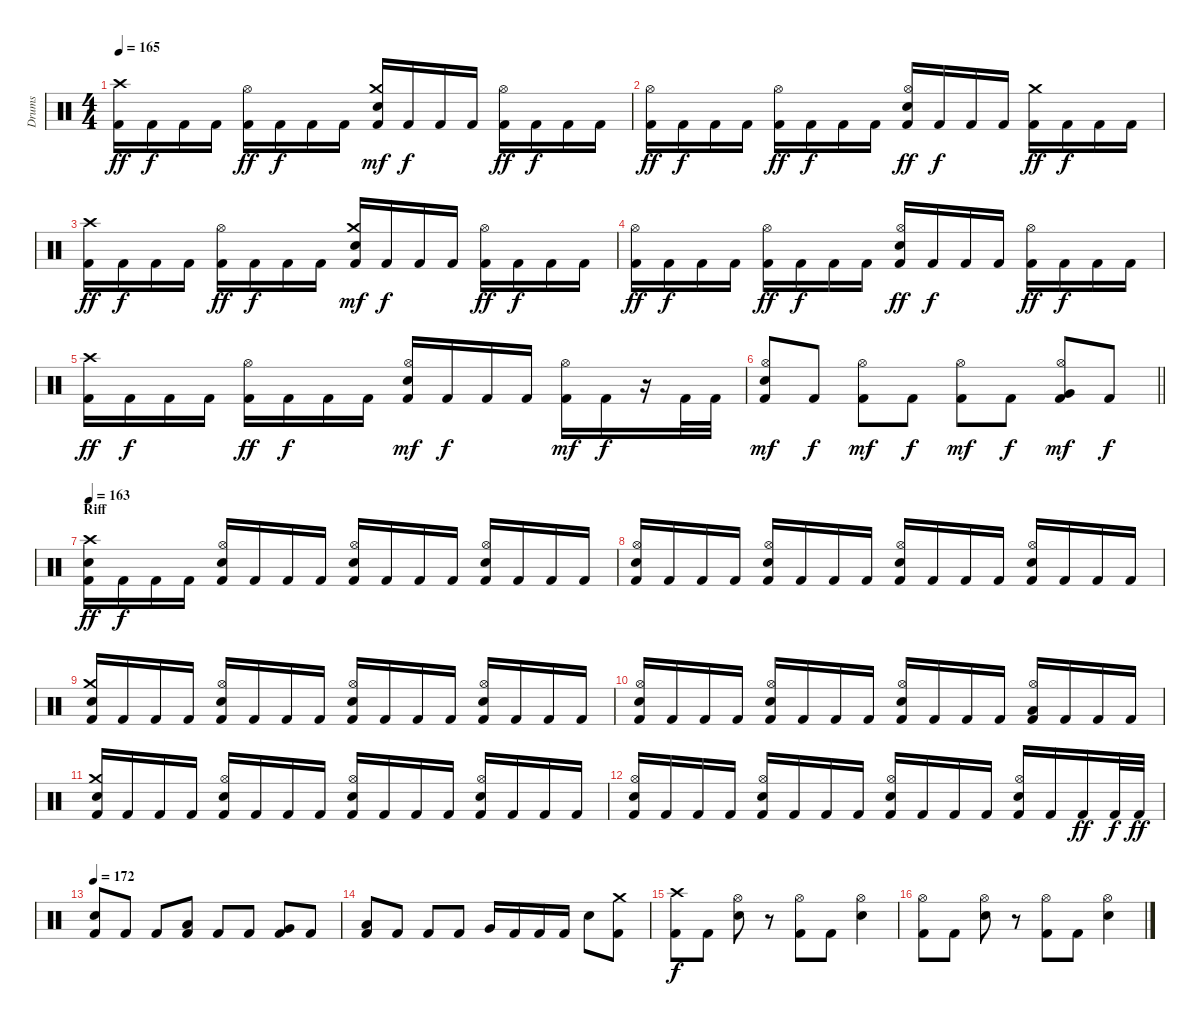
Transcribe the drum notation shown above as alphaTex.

\track ("Drums" "Drums") {instrument percussion}
\staff {score}
\articulation defaults
\ts (4 4)
\tempo 165
\clef neutral
\ks c
("Crash high (hit)" "Kick (hit) 2").16{dy ff} "Kick (hit) 2".16{dy f} "Kick (hit) 2".16 "Kick (hit) 2".16 ("Hi-Hat (open)" "Kick (hit) 2").16{dy ff} "Kick (hit) 2".16{dy f} "Kick (hit) 2".16 "Kick (hit) 2".16 ("Crash medium (hit)" "Snare (hit) 2" "Kick (hit) 2").16{dy mf} "Kick (hit) 2".16{dy f} "Kick (hit) 2".16 "Kick (hit) 2".16 ("Hi-Hat (open)" "Kick (hit) 2").16{dy ff} "Kick (hit) 2".16{dy f} "Kick (hit) 2".16 "Kick (hit) 2".16 |
("Hi-Hat (open)" "Kick (hit) 2").16{dy ff} "Kick (hit) 2".16{dy f} "Kick (hit) 2".16 "Kick (hit) 2".16 ("Hi-Hat (open)" "Kick (hit) 2").16{dy ff} "Kick (hit) 2".16{dy f} "Kick (hit) 2".16 "Kick (hit) 2".16 ("Hi-Hat (open)" "Snare (hit) 2" "Kick (hit) 2").16{dy ff} "Kick (hit) 2".16{dy f} "Kick (hit) 2".16 "Kick (hit) 2".16 ("Crash medium (hit)" "Kick (hit) 2").16{dy ff} "Kick (hit) 2".16{dy f} "Kick (hit) 2".16 "Kick (hit) 2".16 |
("Crash high (hit)" "Kick (hit) 2").16{dy ff} "Kick (hit) 2".16{dy f} "Kick (hit) 2".16 "Kick (hit) 2".16 ("Hi-Hat (open)" "Kick (hit) 2").16{dy ff} "Kick (hit) 2".16{dy f} "Kick (hit) 2".16 "Kick (hit) 2".16 ("Crash medium (hit)" "Snare (hit) 2" "Kick (hit) 2").16{dy mf} "Kick (hit) 2".16{dy f} "Kick (hit) 2".16 "Kick (hit) 2".16 ("Hi-Hat (open)" "Kick (hit) 2").16{dy ff} "Kick (hit) 2".16{dy f} "Kick (hit) 2".16 "Kick (hit) 2".16 |
("Hi-Hat (open)" "Kick (hit) 2").16{dy ff} "Kick (hit) 2".16{dy f} "Kick (hit) 2".16 "Kick (hit) 2".16 ("Hi-Hat (open)" "Kick (hit) 2").16{dy ff} "Kick (hit) 2".16{dy f} "Kick (hit) 2".16 "Kick (hit) 2".16 ("Hi-Hat (open)" "Snare (hit) 2" "Kick (hit) 2").16{dy ff} "Kick (hit) 2".16{dy f} "Kick (hit) 2".16 "Kick (hit) 2".16 ("Hi-Hat (open)" "Kick (hit) 2").16{dy ff} "Kick (hit) 2".16{dy f} "Kick (hit) 2".16 "Kick (hit) 2".16 |
("Crash high (hit)" "Kick (hit) 2").16{dy ff} "Kick (hit) 2".16{dy f} "Kick (hit) 2".16 "Kick (hit) 2".16 ("Hi-Hat (open)" "Kick (hit) 2").16{dy ff} "Kick (hit) 2".16{dy f} "Kick (hit) 2".16 "Kick (hit) 2".16 ("Hi-Hat (open)" "Snare (hit) 2" "Kick (hit) 2").16{dy mf} "Kick (hit) 2".16{dy f} "Kick (hit) 2".16 "Kick (hit) 2".16 ("Hi-Hat (open)" "Kick (hit) 2").16{dy mf} "Kick (hit) 2".16{dy f} r.16 "Kick (hit) 2".32 "Kick (hit) 2".32 |
\barLineRight lightlight
("Hi-Hat (open)" "Snare (hit) 2" "Kick (hit) 2").8{dy mf} "Kick (hit) 2".8{dy f} ("Hi-Hat (open)" "Kick (hit) 2").8{dy mf} "Kick (hit) 2".8{dy f} ("Hi-Hat (open)" "Kick (hit) 2").8{dy mf} "Kick (hit) 2".8{dy f} ("Very Low Tom (hit)" "Hi-Hat (open)" "Kick (hit) 2").8{dy mf} "Kick (hit) 2".8{dy f} |
\section ("" "Riff")
\tempo 163
("Crash high (hit)" "Snare (hit) 2" "Kick (hit) 2").16{dy ff} "Kick (hit) 2".16{dy f} "Kick (hit) 2".16 "Kick (hit) 2".16 ("Hi-Hat (open)" "Snare (hit) 2" "Kick (hit) 2").16 "Kick (hit) 2".16 "Kick (hit) 2".16 "Kick (hit) 2".16 ("Hi-Hat (open)" "Snare (hit) 2" "Kick (hit) 2").16 "Kick (hit) 2".16 "Kick (hit) 2".16 "Kick (hit) 2".16 ("Hi-Hat (open)" "Snare (hit) 2" "Kick (hit) 2").16 "Kick (hit) 2".16 "Kick (hit) 2".16 "Kick (hit) 2".16 |
("Hi-Hat (open)" "Snare (hit) 2" "Kick (hit) 2").16 "Kick (hit) 2".16 "Kick (hit) 2".16 "Kick (hit) 2".16 ("Hi-Hat (open)" "Snare (hit) 2" "Kick (hit) 2").16 "Kick (hit) 2".16 "Kick (hit) 2".16 "Kick (hit) 2".16 ("Hi-Hat (open)" "Snare (hit) 2" "Kick (hit) 2").16 "Kick (hit) 2".16 "Kick (hit) 2".16 "Kick (hit) 2".16 ("Hi-Hat (open)" "Snare (hit) 2" "Kick (hit) 2").16 "Kick (hit) 2".16 "Kick (hit) 2".16 "Kick (hit) 2".16 |
("Crash medium (hit)" "Snare (hit) 2" "Kick (hit) 2").16 "Kick (hit) 2".16 "Kick (hit) 2".16 "Kick (hit) 2".16 ("Hi-Hat (open)" "Snare (hit) 2" "Kick (hit) 2").16 "Kick (hit) 2".16 "Kick (hit) 2".16 "Kick (hit) 2".16 ("Hi-Hat (open)" "Snare (hit) 2" "Kick (hit) 2").16 "Kick (hit) 2".16 "Kick (hit) 2".16 "Kick (hit) 2".16 ("Hi-Hat (open)" "Snare (hit) 2" "Kick (hit) 2").16 "Kick (hit) 2".16 "Kick (hit) 2".16 "Kick (hit) 2".16 |
("Hi-Hat (open)" "Snare (hit) 2" "Kick (hit) 2").16 "Kick (hit) 2".16 "Kick (hit) 2".16 "Kick (hit) 2".16 ("Hi-Hat (open)" "Snare (hit) 2" "Kick (hit) 2").16 "Kick (hit) 2".16 "Kick (hit) 2".16 "Kick (hit) 2".16 ("Hi-Hat (open)" "Snare (hit) 2" "Kick (hit) 2").16 "Kick (hit) 2".16 "Kick (hit) 2".16 "Kick (hit) 2".16 ("Low Tom (hit)" "Hi-Hat (open)" "Kick (hit) 2").16 "Kick (hit) 2".16 "Kick (hit) 2".16 "Kick (hit) 2".16 |
("Crash medium (hit)" "Snare (hit) 2" "Kick (hit) 2").16 "Kick (hit) 2".16 "Kick (hit) 2".16 "Kick (hit) 2".16 ("Hi-Hat (open)" "Snare (hit) 2" "Kick (hit) 2").16 "Kick (hit) 2".16 "Kick (hit) 2".16 "Kick (hit) 2".16 ("Hi-Hat (open)" "Snare (hit) 2" "Kick (hit) 2").16 "Kick (hit) 2".16 "Kick (hit) 2".16 "Kick (hit) 2".16 ("Hi-Hat (open)" "Snare (hit) 2" "Kick (hit) 2").16 "Kick (hit) 2".16 "Kick (hit) 2".16 "Kick (hit) 2".16 |
("Hi-Hat (open)" "Snare (hit) 2" "Kick (hit) 2").16 "Kick (hit) 2".16 "Kick (hit) 2".16 "Kick (hit) 2".16 ("Hi-Hat (open)" "Snare (hit) 2" "Kick (hit) 2").16 "Kick (hit) 2".16 "Kick (hit) 2".16 "Kick (hit) 2".16 ("Hi-Hat (open)" "Snare (hit) 2" "Kick (hit) 2").16 "Kick (hit) 2".16 "Kick (hit) 2".16 "Kick (hit) 2".16 ("Hi-Hat (open)" "Snare (hit) 2" "Kick (hit) 2").16 "Kick (hit) 2".16 "Kick (hit) 2".16{dy ff} "Kick (hit) 2".32{dy f} "Kick (hit) 2".32{dy ff} |
\tempo 172
("Snare (hit) 2" "Kick (hit) 2").8 "Kick (hit) 2".8 "Kick (hit) 2".8 ("Low Tom (hit)" "Kick (hit) 2").8 "Kick (hit) 2".8 "Kick (hit) 2".8 ("Very Low Tom (hit)" "Kick (hit) 2").8 "Kick (hit) 2".8 |
("Low Floor Tom (hit)" "Kick (hit) 2").8 "Kick (hit) 2".8 "Kick (hit) 2".8 "Kick (hit) 2".8 "Very Low Tom (hit)".16 "Kick (hit) 2".16 "Kick (hit) 2".16 "Kick (hit) 2".16 "Snare (hit) 2".8 ("Crash medium (hit)" "Kick (hit) 2").8 |
("Crash high (hit)" "Kick (hit) 2").8{dy f} "Kick (hit) 2".8 ("Hi-Hat (open)" "Snare (hit) 2").8 r.8 ("Hi-Hat (open)" "Kick (hit) 2").8 "Kick (hit) 2".8 ("Hi-Hat (open)" "Snare (hit) 2").4 |
("Hi-Hat (open)" "Kick (hit) 2").8 "Kick (hit) 2".8 ("Hi-Hat (open)" "Snare (hit) 2").8 r.8 ("Hi-Hat (open)" "Kick (hit) 2").8 "Kick (hit) 2".8 ("Hi-Hat (open)" "Snare (hit) 2").4
